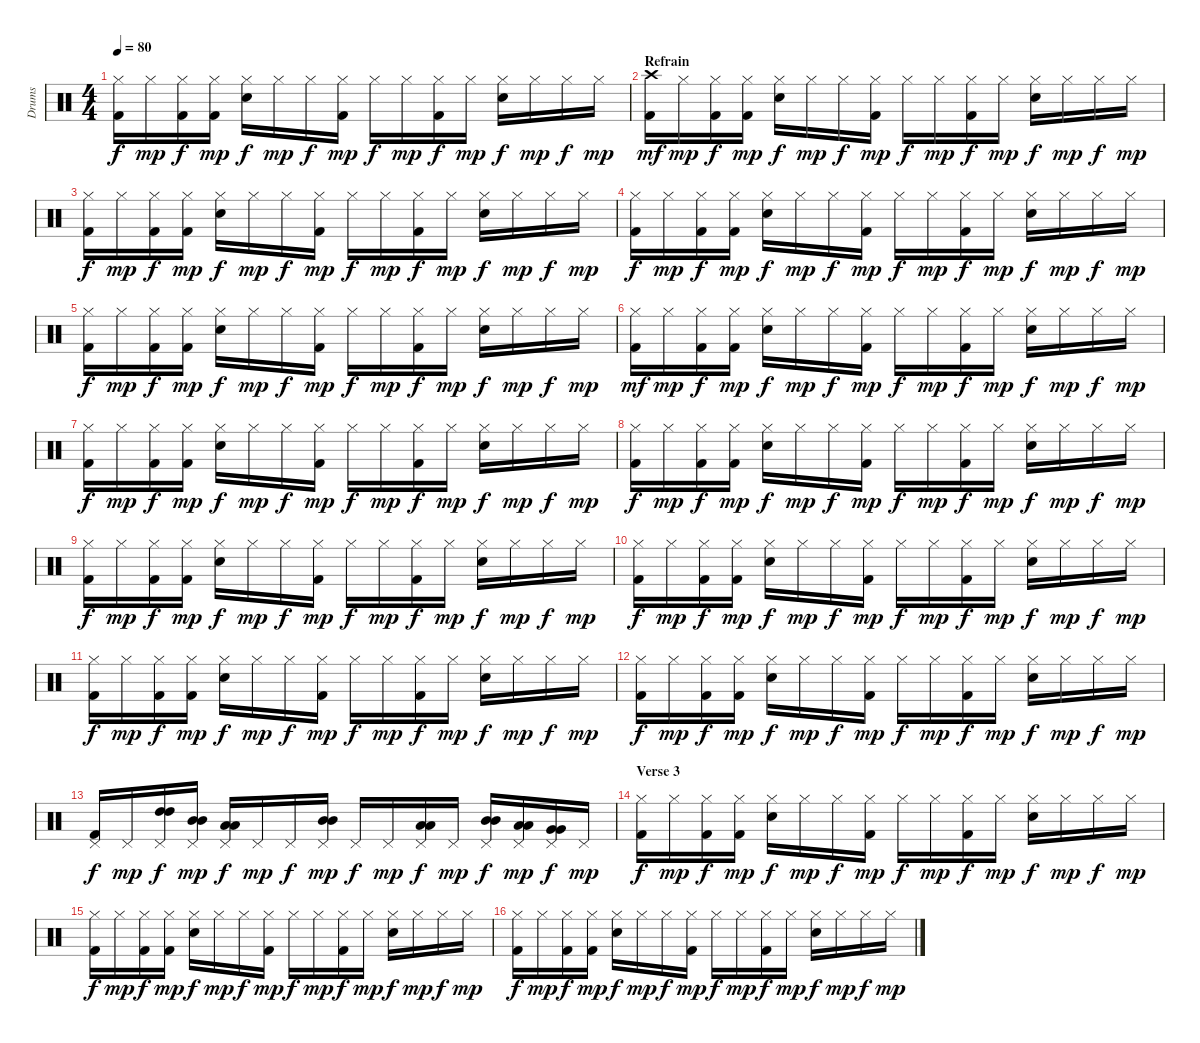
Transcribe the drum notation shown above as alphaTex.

\track ("Drums" "Drums") {instrument percussion}
\staff {score}
\articulation defaults
\ts (4 4)
\tempo 80
\clef neutral
\ks c
("Hi-Hat (closed)" "Kick (hit) 2").16{dy f} "Hi-Hat (closed)".16{dy mp} ("Hi-Hat (closed)" "Kick (hit) 2").16{dy f} ("Hi-Hat (closed)" "Kick (hit) 2").16{dy mp} ("Hi-Hat (closed)" "Electric Snare (hit)").16{dy f} "Hi-Hat (closed)".16{dy mp} "Hi-Hat (closed)".16{dy f} ("Hi-Hat (closed)" "Kick (hit) 2").16{dy mp} "Hi-Hat (closed)".16{dy f} "Hi-Hat (closed)".16{dy mp} ("Hi-Hat (closed)" "Kick (hit) 2").16{dy f} "Hi-Hat (closed)".16{dy mp} ("Hi-Hat (closed)" "Electric Snare (hit)").16{dy f} "Hi-Hat (closed)".16{dy mp} "Hi-Hat (closed)".16{dy f} "Hi-Hat (closed)".16{dy mp} |
\section ("" "Refrain")
("Crash high (hit)" "Kick (hit) 2").16{dy mf} "Hi-Hat (closed)".16{dy mp} ("Hi-Hat (closed)" "Kick (hit) 2").16{dy f} ("Hi-Hat (closed)" "Kick (hit) 2").16{dy mp} ("Hi-Hat (closed)" "Electric Snare (hit)").16{dy f} "Hi-Hat (closed)".16{dy mp} "Hi-Hat (closed)".16{dy f} ("Hi-Hat (closed)" "Kick (hit) 2").16{dy mp} "Hi-Hat (closed)".16{dy f} "Hi-Hat (closed)".16{dy mp} ("Hi-Hat (closed)" "Kick (hit) 2").16{dy f} "Hi-Hat (closed)".16{dy mp} ("Hi-Hat (closed)" "Electric Snare (hit)").16{dy f} "Hi-Hat (closed)".16{dy mp} "Hi-Hat (closed)".16{dy f} "Hi-Hat (closed)".16{dy mp} |
("Hi-Hat (closed)" "Kick (hit) 2").16{dy f} "Hi-Hat (closed)".16{dy mp} ("Hi-Hat (closed)" "Kick (hit) 2").16{dy f} ("Hi-Hat (closed)" "Kick (hit) 2").16{dy mp} ("Hi-Hat (closed)" "Electric Snare (hit)").16{dy f} "Hi-Hat (closed)".16{dy mp} "Hi-Hat (closed)".16{dy f} ("Hi-Hat (closed)" "Kick (hit) 2").16{dy mp} "Hi-Hat (closed)".16{dy f} "Hi-Hat (closed)".16{dy mp} ("Hi-Hat (closed)" "Kick (hit) 2").16{dy f} "Hi-Hat (closed)".16{dy mp} ("Hi-Hat (closed)" "Electric Snare (hit)").16{dy f} "Hi-Hat (closed)".16{dy mp} "Hi-Hat (closed)".16{dy f} "Hi-Hat (closed)".16{dy mp} |
("Hi-Hat (closed)" "Kick (hit) 2").16{dy f} "Hi-Hat (closed)".16{dy mp} ("Hi-Hat (closed)" "Kick (hit) 2").16{dy f} ("Hi-Hat (closed)" "Kick (hit) 2").16{dy mp} ("Hi-Hat (closed)" "Electric Snare (hit)").16{dy f} "Hi-Hat (closed)".16{dy mp} "Hi-Hat (closed)".16{dy f} ("Hi-Hat (closed)" "Kick (hit) 2").16{dy mp} "Hi-Hat (closed)".16{dy f} "Hi-Hat (closed)".16{dy mp} ("Hi-Hat (closed)" "Kick (hit) 2").16{dy f} "Hi-Hat (closed)".16{dy mp} ("Hi-Hat (closed)" "Electric Snare (hit)").16{dy f} "Hi-Hat (closed)".16{dy mp} "Hi-Hat (closed)".16{dy f} "Hi-Hat (closed)".16{dy mp} |
("Hi-Hat (closed)" "Kick (hit) 2").16{dy f} "Hi-Hat (closed)".16{dy mp} ("Hi-Hat (closed)" "Kick (hit) 2").16{dy f} ("Hi-Hat (closed)" "Kick (hit) 2").16{dy mp} ("Hi-Hat (closed)" "Electric Snare (hit)").16{dy f} "Hi-Hat (closed)".16{dy mp} "Hi-Hat (closed)".16{dy f} ("Hi-Hat (closed)" "Kick (hit) 2").16{dy mp} "Hi-Hat (closed)".16{dy f} "Hi-Hat (closed)".16{dy mp} ("Hi-Hat (closed)" "Kick (hit) 2").16{dy f} "Hi-Hat (closed)".16{dy mp} ("Hi-Hat (closed)" "Electric Snare (hit)").16{dy f} "Hi-Hat (closed)".16{dy mp} "Hi-Hat (closed)".16{dy f} "Hi-Hat (closed)".16{dy mp} |
("Hi-Hat (closed)" "Kick (hit) 2").16{dy mf} "Hi-Hat (closed)".16{dy mp} ("Hi-Hat (closed)" "Kick (hit) 2").16{dy f} ("Hi-Hat (closed)" "Kick (hit) 2").16{dy mp} ("Hi-Hat (closed)" "Electric Snare (hit)").16{dy f} "Hi-Hat (closed)".16{dy mp} "Hi-Hat (closed)".16{dy f} ("Hi-Hat (closed)" "Kick (hit) 2").16{dy mp} "Hi-Hat (closed)".16{dy f} "Hi-Hat (closed)".16{dy mp} ("Hi-Hat (closed)" "Kick (hit) 2").16{dy f} "Hi-Hat (closed)".16{dy mp} ("Hi-Hat (closed)" "Electric Snare (hit)").16{dy f} "Hi-Hat (closed)".16{dy mp} "Hi-Hat (closed)".16{dy f} "Hi-Hat (closed)".16{dy mp} |
("Hi-Hat (closed)" "Kick (hit) 2").16{dy f} "Hi-Hat (closed)".16{dy mp} ("Hi-Hat (closed)" "Kick (hit) 2").16{dy f} ("Hi-Hat (closed)" "Kick (hit) 2").16{dy mp} ("Hi-Hat (closed)" "Electric Snare (hit)").16{dy f} "Hi-Hat (closed)".16{dy mp} "Hi-Hat (closed)".16{dy f} ("Hi-Hat (closed)" "Kick (hit) 2").16{dy mp} "Hi-Hat (closed)".16{dy f} "Hi-Hat (closed)".16{dy mp} ("Hi-Hat (closed)" "Kick (hit) 2").16{dy f} "Hi-Hat (closed)".16{dy mp} ("Hi-Hat (closed)" "Electric Snare (hit)").16{dy f} "Hi-Hat (closed)".16{dy mp} "Hi-Hat (closed)".16{dy f} "Hi-Hat (closed)".16{dy mp} |
("Hi-Hat (closed)" "Kick (hit) 2").16{dy f} "Hi-Hat (closed)".16{dy mp} ("Hi-Hat (closed)" "Kick (hit) 2").16{dy f} ("Hi-Hat (closed)" "Kick (hit) 2").16{dy mp} ("Hi-Hat (closed)" "Electric Snare (hit)").16{dy f} "Hi-Hat (closed)".16{dy mp} "Hi-Hat (closed)".16{dy f} ("Hi-Hat (closed)" "Kick (hit) 2").16{dy mp} "Hi-Hat (closed)".16{dy f} "Hi-Hat (closed)".16{dy mp} ("Hi-Hat (closed)" "Kick (hit) 2").16{dy f} "Hi-Hat (closed)".16{dy mp} ("Hi-Hat (closed)" "Electric Snare (hit)").16{dy f} "Hi-Hat (closed)".16{dy mp} "Hi-Hat (closed)".16{dy f} "Hi-Hat (closed)".16{dy mp} |
("Hi-Hat (closed)" "Kick (hit) 2").16{dy f} "Hi-Hat (closed)".16{dy mp} ("Hi-Hat (closed)" "Kick (hit) 2").16{dy f} ("Hi-Hat (closed)" "Kick (hit) 2").16{dy mp} ("Hi-Hat (closed)" "Electric Snare (hit)").16{dy f} "Hi-Hat (closed)".16{dy mp} "Hi-Hat (closed)".16{dy f} ("Hi-Hat (closed)" "Kick (hit) 2").16{dy mp} "Hi-Hat (closed)".16{dy f} "Hi-Hat (closed)".16{dy mp} ("Hi-Hat (closed)" "Kick (hit) 2").16{dy f} "Hi-Hat (closed)".16{dy mp} ("Hi-Hat (closed)" "Electric Snare (hit)").16{dy f} "Hi-Hat (closed)".16{dy mp} "Hi-Hat (closed)".16{dy f} "Hi-Hat (closed)".16{dy mp} |
("Hi-Hat (closed)" "Kick (hit) 2").16{dy f} "Hi-Hat (closed)".16{dy mp} ("Hi-Hat (closed)" "Kick (hit) 2").16{dy f} ("Hi-Hat (closed)" "Kick (hit) 2").16{dy mp} ("Hi-Hat (closed)" "Electric Snare (hit)").16{dy f} "Hi-Hat (closed)".16{dy mp} "Hi-Hat (closed)".16{dy f} ("Hi-Hat (closed)" "Kick (hit) 2").16{dy mp} "Hi-Hat (closed)".16{dy f} "Hi-Hat (closed)".16{dy mp} ("Hi-Hat (closed)" "Kick (hit) 2").16{dy f} "Hi-Hat (closed)".16{dy mp} ("Hi-Hat (closed)" "Electric Snare (hit)").16{dy f} "Hi-Hat (closed)".16{dy mp} "Hi-Hat (closed)".16{dy f} "Hi-Hat (closed)".16{dy mp} |
("Hi-Hat (closed)" "Kick (hit) 2").16{dy f} "Hi-Hat (closed)".16{dy mp} ("Hi-Hat (closed)" "Kick (hit) 2").16{dy f} ("Hi-Hat (closed)" "Kick (hit) 2").16{dy mp} ("Hi-Hat (closed)" "Electric Snare (hit)").16{dy f} "Hi-Hat (closed)".16{dy mp} "Hi-Hat (closed)".16{dy f} ("Hi-Hat (closed)" "Kick (hit) 2").16{dy mp} "Hi-Hat (closed)".16{dy f} "Hi-Hat (closed)".16{dy mp} ("Hi-Hat (closed)" "Kick (hit) 2").16{dy f} "Hi-Hat (closed)".16{dy mp} ("Hi-Hat (closed)" "Electric Snare (hit)").16{dy f} "Hi-Hat (closed)".16{dy mp} "Hi-Hat (closed)".16{dy f} "Hi-Hat (closed)".16{dy mp} |
("Hi-Hat (closed)" "Kick (hit) 2").16{dy f} "Hi-Hat (closed)".16{dy mp} ("Hi-Hat (closed)" "Kick (hit) 2").16{dy f} ("Hi-Hat (closed)" "Kick (hit) 2").16{dy mp} ("Hi-Hat (closed)" "Electric Snare (hit)").16{dy f} "Hi-Hat (closed)".16{dy mp} "Hi-Hat (closed)".16{dy f} ("Hi-Hat (closed)" "Kick (hit) 2").16{dy mp} "Hi-Hat (closed)".16{dy f} "Hi-Hat (closed)".16{dy mp} ("Hi-Hat (closed)" "Kick (hit) 2").16{dy f} "Hi-Hat (closed)".16{dy mp} ("Hi-Hat (closed)" "Electric Snare (hit)").16{dy f} "Hi-Hat (closed)".16{dy mp} "Hi-Hat (closed)".16{dy f} "Hi-Hat (closed)".16{dy mp} |
("Pedal Hi-Hat (hit)" "Kick (hit) 2").16{dy f} "Pedal Hi-Hat (hit)".16{dy mp} ("Pedal Hi-Hat (hit)" "High Tom (hit)" "High Tom (hit)").16{dy f} ("Pedal Hi-Hat (hit)" "Mid Tom (hit)" "Mid Tom (hit)").16{dy mp} ("Pedal Hi-Hat (hit)" "Low Tom (hit)" "Low Tom (hit)").16{dy f} "Pedal Hi-Hat (hit)".16{dy mp} "Pedal Hi-Hat (hit)".16{dy f} ("Pedal Hi-Hat (hit)" "Mid Tom (hit)" "Mid Tom (hit)").16{dy mp} "Pedal Hi-Hat (hit)".16{dy f} "Pedal Hi-Hat (hit)".16{dy mp} ("Pedal Hi-Hat (hit)" "Low Tom (hit)" "Low Tom (hit)").16{dy f} "Pedal Hi-Hat (hit)".16{dy mp} ("Pedal Hi-Hat (hit)" "Mid Tom (hit)" "Mid Tom (hit)").16{dy f} ("Pedal Hi-Hat (hit)" "Low Tom (hit)" "Low Tom (hit)").16{dy mp} ("Pedal Hi-Hat (hit)" "Very Low Tom (hit)" "Very Low Tom (hit)").16{dy f} "Pedal Hi-Hat (hit)".16{dy mp} |
\section ("" "Verse 3")
("Hi-Hat (closed)" "Kick (hit) 2").16{dy f} "Hi-Hat (closed)".16{dy mp} ("Hi-Hat (closed)" "Kick (hit) 2").16{dy f} ("Hi-Hat (closed)" "Kick (hit) 2").16{dy mp} ("Hi-Hat (closed)" "Electric Snare (hit)").16{dy f} "Hi-Hat (closed)".16{dy mp} "Hi-Hat (closed)".16{dy f} ("Hi-Hat (closed)" "Kick (hit) 2").16{dy mp} "Hi-Hat (closed)".16{dy f} "Hi-Hat (closed)".16{dy mp} ("Hi-Hat (closed)" "Kick (hit) 2").16{dy f} "Hi-Hat (closed)".16{dy mp} ("Hi-Hat (closed)" "Electric Snare (hit)").16{dy f} "Hi-Hat (closed)".16{dy mp} "Hi-Hat (closed)".16{dy f} "Hi-Hat (closed)".16{dy mp} |
("Hi-Hat (closed)" "Kick (hit) 2").16{dy f} "Hi-Hat (closed)".16{dy mp} ("Hi-Hat (closed)" "Kick (hit) 2").16{dy f} ("Hi-Hat (closed)" "Kick (hit) 2").16{dy mp} ("Hi-Hat (closed)" "Electric Snare (hit)").16{dy f} "Hi-Hat (closed)".16{dy mp} "Hi-Hat (closed)".16{dy f} ("Hi-Hat (closed)" "Kick (hit) 2").16{dy mp} "Hi-Hat (closed)".16{dy f} "Hi-Hat (closed)".16{dy mp} ("Hi-Hat (closed)" "Kick (hit) 2").16{dy f} "Hi-Hat (closed)".16{dy mp} ("Hi-Hat (closed)" "Electric Snare (hit)").16{dy f} "Hi-Hat (closed)".16{dy mp} "Hi-Hat (closed)".16{dy f} "Hi-Hat (closed)".16{dy mp} |
("Hi-Hat (closed)" "Kick (hit) 2").16{dy f} "Hi-Hat (closed)".16{dy mp} ("Hi-Hat (closed)" "Kick (hit) 2").16{dy f} ("Hi-Hat (closed)" "Kick (hit) 2").16{dy mp} ("Hi-Hat (closed)" "Electric Snare (hit)").16{dy f} "Hi-Hat (closed)".16{dy mp} "Hi-Hat (closed)".16{dy f} ("Hi-Hat (closed)" "Kick (hit) 2").16{dy mp} "Hi-Hat (closed)".16{dy f} "Hi-Hat (closed)".16{dy mp} ("Hi-Hat (closed)" "Kick (hit) 2").16{dy f} "Hi-Hat (closed)".16{dy mp} ("Hi-Hat (closed)" "Electric Snare (hit)").16{dy f} "Hi-Hat (closed)".16{dy mp} "Hi-Hat (closed)".16{dy f} "Hi-Hat (closed)".16{dy mp}
